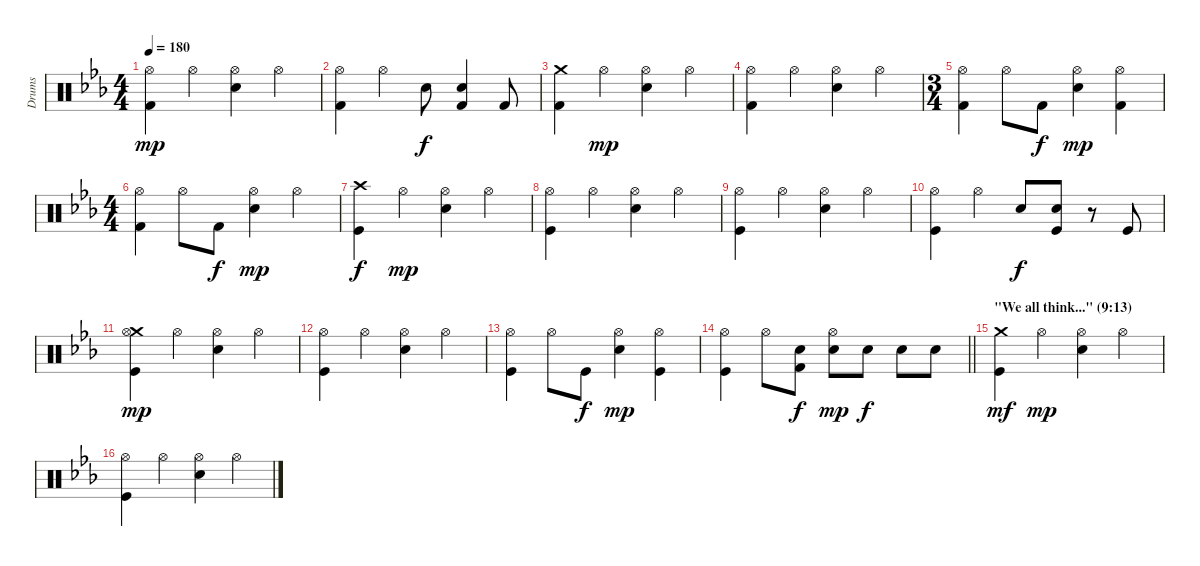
\track ("Drums" "Drums") {instrument percussion}
\staff {score}
\articulation defaults
\ts (4 4)
\tempo 180
\clef neutral
\ks eb
("Hi-Hat (open)" "Kick (hit) 2").4{dy mp} "Hi-Hat (open)".4 ("Hi-Hat (open)" "Electric Snare (hit)").4 "Hi-Hat (open)".4 |
("Hi-Hat (open)" "Kick (hit) 2").4 "Hi-Hat (open)".4 "Electric Snare (hit)".8{dy f} ("Electric Snare (hit)" "Kick (hit) 2").4 "Kick (hit) 2".8 |
("Crash medium (hit)" "Kick (hit) 2").4 "Hi-Hat (open)".4{dy mp} ("Hi-Hat (open)" "Electric Snare (hit)").4 "Hi-Hat (open)".4 |
("Hi-Hat (open)" "Kick (hit) 2").4 "Hi-Hat (open)".4 ("Hi-Hat (open)" "Electric Snare (hit)").4 "Hi-Hat (open)".4 |
\ts (3 4)
("Hi-Hat (open)" "Kick (hit) 2").4 "Hi-Hat (open)".8 "Kick (hit) 2".8{dy f} ("Hi-Hat (open)" "Electric Snare (hit)").4{dy mp} ("Hi-Hat (open)" "Kick (hit) 2").4 |
\ts (4 4)
("Hi-Hat (open)" "Kick (hit) 2").4 "Hi-Hat (open)".8 "Kick (hit) 2".8{dy f} ("Hi-Hat (open)" "Electric Snare (hit)").4{dy mp} "Hi-Hat (open)".4 |
("Crash high (hit)" "Kick (hit)").4{dy f} "Hi-Hat (open)".4{dy mp} ("Hi-Hat (open)" "Snare (hit) 2").4 "Hi-Hat (open)".4 |
("Hi-Hat (open)" "Kick (hit)").4 "Hi-Hat (open)".4 ("Hi-Hat (open)" "Snare (hit) 2").4 "Hi-Hat (open)".4 |
("Hi-Hat (open)" "Kick (hit)").4 "Hi-Hat (open)".4 ("Hi-Hat (open)" "Snare (hit) 2").4 "Hi-Hat (open)".4 |
("Hi-Hat (open)" "Kick (hit)").4 "Hi-Hat (open)".4 "Snare (hit) 2".8{dy f} ("Snare (hit) 2" "Kick (hit)").8 r.8 "Kick (hit)".8 |
("Crash medium (hit)" "Hi-Hat (open)" "Kick (hit)").4{dy mp} "Hi-Hat (open)".4 ("Hi-Hat (open)" "Snare (hit) 2").4 "Hi-Hat (open)".4 |
("Hi-Hat (open)" "Kick (hit)").4 "Hi-Hat (open)".4 ("Hi-Hat (open)" "Snare (hit) 2").4 "Hi-Hat (open)".4 |
("Hi-Hat (open)" "Kick (hit)").4 "Hi-Hat (open)".8 "Kick (hit)".8{dy f} ("Hi-Hat (open)" "Snare (hit) 2").4{dy mp} ("Hi-Hat (open)" "Kick (hit)").4 |
\barLineRight lightlight
("Hi-Hat (open)" "Kick (hit)").4 "Hi-Hat (open)".8 ("Electric Snare (hit)" "Kick (hit) 2").8{dy f} ("Hi-Hat (open)" "Electric Snare (hit)").8{dy mp} "Electric Snare (hit)".8{dy f} "Electric Snare (hit)".8 "Electric Snare (hit)".8 |
\section ("" "\"We all think...\" (9:13)")
("Crash medium (hit)" "Kick (hit)").4{dy mf} "Hi-Hat (open)".4{dy mp} ("Hi-Hat (open)" "Snare (hit) 2").4 "Hi-Hat (open)".4 |
("Hi-Hat (open)" "Kick (hit)").4 "Hi-Hat (open)".4 ("Hi-Hat (open)" "Snare (hit) 2").4 "Hi-Hat (open)".4
